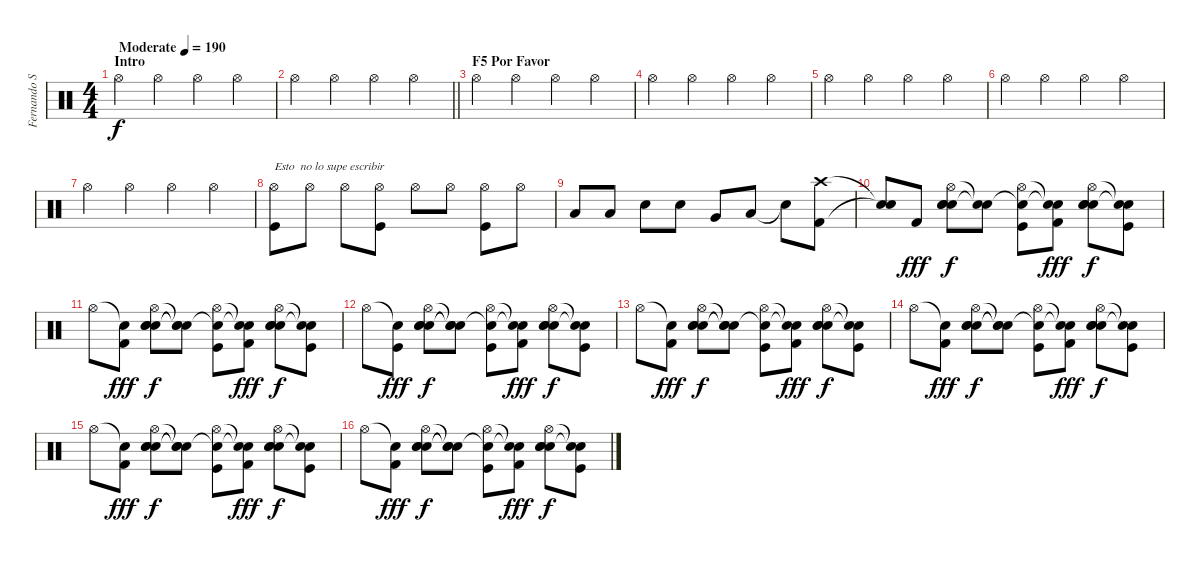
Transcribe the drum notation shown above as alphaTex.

\track ("Fernando Scarcella" "Fernando S") {instrument percussion}
\staff {score}
\articulation defaults
\ts (4 4)
\section ("" "Intro")
\tempo (190 "Moderate")
\clef neutral
\ks c "Hi-Hat (open)".4{dy f} "Hi-Hat (open)".4 "Hi-Hat (open)".4 "Hi-Hat (open)".4
|
\barLineRight lightlight "Hi-Hat (open)".4 "Hi-Hat (open)".4 "Hi-Hat (open)".4 "Hi-Hat (open)".4
|
\section ("" "F5 Por Favor")
"Hi-Hat (open)".4 "Hi-Hat (open)".4 "Hi-Hat (open)".4 "Hi-Hat (open)".4 |
"Hi-Hat (open)".4 "Hi-Hat (open)".4 "Hi-Hat (open)".4 "Hi-Hat (open)".4 |
"Hi-Hat (open)".4 "Hi-Hat (open)".4 "Hi-Hat (open)".4 "Hi-Hat (open)".4 |
"Hi-Hat (open)".4 "Hi-Hat (open)".4 "Hi-Hat (open)".4 "Hi-Hat (open)".4 |
"Hi-Hat (open)".4 "Hi-Hat (open)".4 "Hi-Hat (open)".4 "Hi-Hat (open)".4 |
("Hi-Hat (open)" "Kick (hit)").8{txt "Esto  no lo supe escribir"} "Hi-Hat (open)".8 "Hi-Hat (open)".8 ("Hi-Hat (open)" "Kick (hit)").8 "Hi-Hat (open)".8 "Hi-Hat (open)".8 ("Hi-Hat (open)" "Kick (hit)").8 "Hi-Hat (open)".8 |
"Low Tom (hit)".8 "Low Tom (hit)".8 "Snare (hit) 2".8 "Snare (hit) 2".8 "Very Low Tom (hit)".8 "Low Floor Tom (hit)".8 "Snare (hit)"{t}.8 ("Crash high (hit)" "Kick (hit) 2").8 |
("Snare (hit)"{t} "Snare (hit)"{t}).8 "Kick (hit) 2".8{dy fff} ("Hi-Hat (open)" "Electric Snare (hit)" "Electric Snare (hit)" "Electric Snare (hit)").8{dy f} ("Snare (hit)"{t} "Snare (hit)"{t}).8 ("Hi-Hat (open)" "Snare (hit)"{t} "Kick (hit)").8 ("Snare (hit)"{t} "Snare (hit)"{t} "Kick (hit) 2").8{dy fff} ("Hi-Hat (open)" "Electric Snare (hit)" "Electric Snare (hit)" "Electric Snare (hit)").8{dy f} ("Snare (hit)"{t} "Snare (hit)"{t} "Kick (hit)").8 |
"Hi-Hat (open)".8 ("Snare (hit)"{t} "Kick (hit) 2").8{dy fff} ("Hi-Hat (open)" "Electric Snare (hit)" "Electric Snare (hit)" "Electric Snare (hit)").8{dy f} ("Snare (hit)"{t} "Snare (hit)"{t} "Snare (hit)"{t}).8 ("Hi-Hat (open)" "Snare (hit)"{t} "Kick (hit)").8 ("Snare (hit)"{t} "Snare (hit)"{t} "Kick (hit) 2").8{dy fff} ("Hi-Hat (open)" "Electric Snare (hit)" "Electric Snare (hit)" "Electric Snare (hit)").8{dy f} ("Snare (hit)"{t} "Snare (hit)"{t} "Kick (hit)").8 |
"Hi-Hat (open)".8 ("Snare (hit)"{t} "Kick (hit)").8{dy fff} ("Hi-Hat (open)" "Electric Snare (hit)" "Electric Snare (hit)" "Electric Snare (hit)").8{dy f} ("Snare (hit)"{t} "Snare (hit)"{t} "Snare (hit)"{t}).8 ("Hi-Hat (open)" "Snare (hit)"{t} "Kick (hit)").8 ("Snare (hit)"{t} "Snare (hit)"{t} "Kick (hit) 2").8{dy fff} ("Hi-Hat (open)" "Electric Snare (hit)" "Electric Snare (hit)" "Electric Snare (hit)").8{dy f} ("Snare (hit)"{t} "Snare (hit)"{t} "Kick (hit)").8 |
"Hi-Hat (open)".8 ("Snare (hit)"{t} "Kick (hit) 2").8{dy fff} ("Hi-Hat (open)" "Electric Snare (hit)" "Electric Snare (hit)" "Electric Snare (hit)").8{dy f} ("Snare (hit)"{t} "Snare (hit)"{t} "Snare (hit)"{t}).8 ("Hi-Hat (open)" "Snare (hit)"{t} "Kick (hit)").8 ("Snare (hit)"{t} "Snare (hit)"{t} "Kick (hit) 2").8{dy fff} ("Hi-Hat (open)" "Electric Snare (hit)" "Electric Snare (hit)" "Electric Snare (hit)").8{dy f} ("Snare (hit)"{t} "Snare (hit)"{t} "Kick (hit)").8 |
"Hi-Hat (open)".8 ("Snare (hit)"{t} "Kick (hit) 2").8{dy fff} ("Hi-Hat (open)" "Electric Snare (hit)" "Electric Snare (hit)" "Electric Snare (hit)").8{dy f} ("Snare (hit)"{t} "Snare (hit)"{t} "Snare (hit)"{t}).8 ("Hi-Hat (open)" "Snare (hit)"{t} "Kick (hit)").8 ("Snare (hit)"{t} "Snare (hit)"{t} "Kick (hit) 2").8{dy fff} ("Hi-Hat (open)" "Electric Snare (hit)" "Electric Snare (hit)" "Electric Snare (hit)").8{dy f} ("Snare (hit)"{t} "Snare (hit)"{t} "Kick (hit)").8 |
"Hi-Hat (open)".8 ("Snare (hit)"{t} "Kick (hit) 2").8{dy fff} ("Hi-Hat (open)" "Electric Snare (hit)" "Electric Snare (hit)" "Electric Snare (hit)").8{dy f} ("Snare (hit)"{t} "Snare (hit)"{t} "Snare (hit)"{t}).8 ("Hi-Hat (open)" "Snare (hit)"{t} "Kick (hit)").8 ("Snare (hit)"{t} "Snare (hit)"{t} "Kick (hit) 2").8{dy fff} ("Hi-Hat (open)" "Electric Snare (hit)" "Electric Snare (hit)" "Electric Snare (hit)").8{dy f} ("Snare (hit)"{t} "Snare (hit)"{t} "Kick (hit)").8 |
"Hi-Hat (open)".8 ("Snare (hit)"{t} "Kick (hit) 2").8{dy fff} ("Hi-Hat (open)" "Electric Snare (hit)" "Electric Snare (hit)" "Electric Snare (hit)").8{dy f} ("Snare (hit)"{t} "Snare (hit)"{t} "Snare (hit)"{t}).8 ("Hi-Hat (open)" "Snare (hit)"{t} "Kick (hit)").8 ("Snare (hit)"{t} "Snare (hit)"{t} "Kick (hit) 2").8{dy fff} ("Hi-Hat (open)" "Electric Snare (hit)" "Electric Snare (hit)" "Electric Snare (hit)").8{dy f} ("Snare (hit)"{t} "Snare (hit)"{t} "Kick (hit)").8
